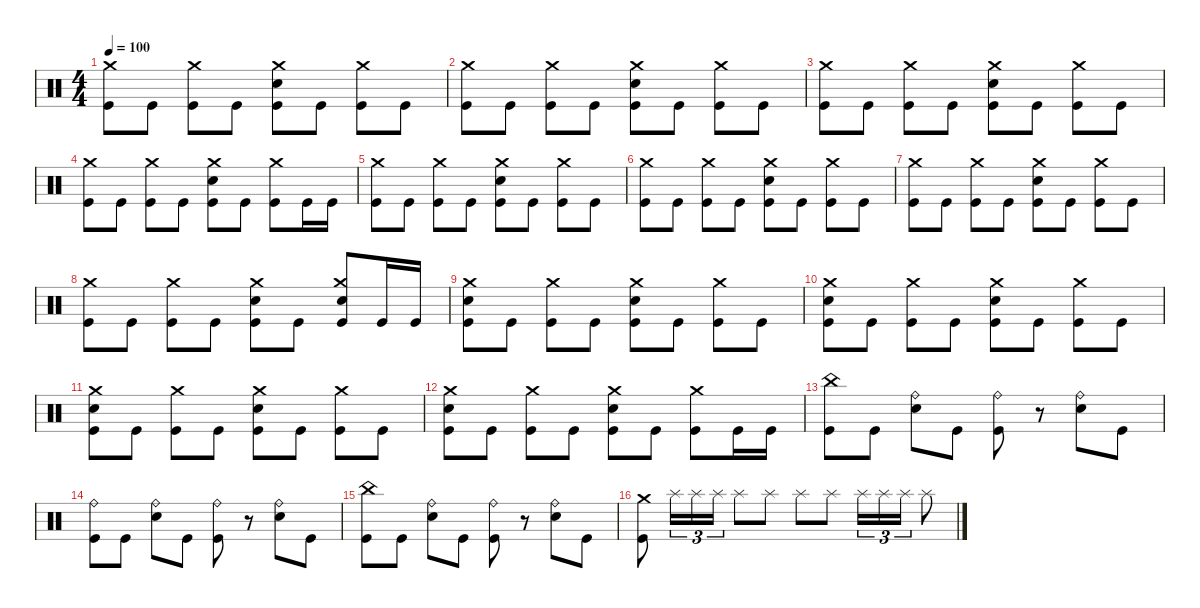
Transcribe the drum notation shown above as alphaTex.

\defaultSystemsLayout 4
\hideDynamics
\bracketExtendMode nobrackets
\singleTrackTrackNamePolicy hidden
\multiTrackTrackNamePolicy hidden
\firstSystemTrackNameMode fullname
\otherSystemsTrackNameOrientation horizontal
\track ("Drumkit" "drm.") {instrument percussion}
\staff {score}
\articulation defaults
\ts (4 4)
\beaming (8 2 2 2 2)
\tempo 100
\clef neutral
\ks c
("Kick (hit)" "Crash medium (hit)").8{dy mf beam Down} "Kick (hit)".8{beam Down} ("Kick (hit)" "Crash medium (hit)").8{beam Down} "Kick (hit)".8{beam Down} ("Kick (hit)" "Snare (hit) 2" "Crash medium (hit)").8{beam Down} "Kick (hit)".8{beam Down} ("Kick (hit)" "Crash medium (hit)").8{beam Down} "Kick (hit)".8{beam Down} |
("Kick (hit)" "Crash medium (hit)").8{beam Down} "Kick (hit)".8{beam Down} ("Kick (hit)" "Crash medium (hit)").8{beam Down} "Kick (hit)".8{beam Down} ("Kick (hit)" "Snare (hit) 2" "Crash medium (hit)").8{beam Down} "Kick (hit)".8{beam Down} ("Kick (hit)" "Crash medium (hit)").8{beam Down} "Kick (hit)".8{beam Down} |
("Kick (hit)" "Crash medium (hit)").8{beam Down} "Kick (hit)".8{beam Down} ("Kick (hit)" "Crash medium (hit)").8{beam Down} "Kick (hit)".8{beam Down} ("Kick (hit)" "Snare (hit) 2" "Crash medium (hit)").8{beam Down} "Kick (hit)".8{beam Down} ("Kick (hit)" "Crash medium (hit)").8{beam Down} "Kick (hit)".8{beam Down} |
("Kick (hit)" "Crash medium (hit)").8{beam Down} "Kick (hit)".8{beam Down} ("Kick (hit)" "Crash medium (hit)").8{beam Down} "Kick (hit)".8{beam Down} ("Kick (hit)" "Snare (hit) 2" "Crash medium (hit)").8{beam Down} "Kick (hit)".8{beam Down} ("Kick (hit)" "Crash medium (hit)").8{beam Down} "Kick (hit)".16{beam Down} "Kick (hit)".16{beam Down} |
("Kick (hit)" "Crash medium (hit)").8{beam Down} "Kick (hit)".8{beam Down} ("Kick (hit)" "Crash medium (hit)").8{beam Down} "Kick (hit)".8{beam Down} ("Kick (hit)" "Snare (hit) 2" "Crash medium (hit)").8{beam Down} "Kick (hit)".8{beam Down} ("Kick (hit)" "Crash medium (hit)").8{beam Down} "Kick (hit)".8{beam Down} |
("Kick (hit)" "Crash medium (hit)").8{beam Down} "Kick (hit)".8{beam Down} ("Kick (hit)" "Crash medium (hit)").8{beam Down} "Kick (hit)".8{beam Down} ("Kick (hit)" "Snare (hit) 2" "Crash medium (hit)").8{beam Down} "Kick (hit)".8{beam Down} ("Kick (hit)" "Crash medium (hit)").8{beam Down} "Kick (hit)".8{beam Down} |
("Kick (hit)" "Crash medium (hit)").8{beam Down} "Kick (hit)".8{beam Down} ("Kick (hit)" "Crash medium (hit)").8{beam Down} "Kick (hit)".8{beam Down} ("Kick (hit)" "Snare (hit) 2" "Crash medium (hit)").8{beam Down} "Kick (hit)".8{beam Down} ("Kick (hit)" "Crash medium (hit)").8{beam Down} "Kick (hit)".8{beam Down} |
("Kick (hit)" "Crash medium (hit)").8{beam Down} "Kick (hit)".8{beam Down} ("Kick (hit)" "Crash medium (hit)").8{beam Down} "Kick (hit)".8{beam Down} ("Kick (hit)" "Snare (hit) 2" "Crash medium (hit)").8{beam Down} "Kick (hit)".8{beam Down} ("Kick (hit)" "Crash medium (hit)" "Snare (hit) 2").8{beam Up} "Kick (hit)".16{beam Up} "Kick (hit)".16{beam Up} |
("Kick (hit)" "Crash medium (hit)" "Snare (hit) 2").8{beam Down} "Kick (hit)".8{beam Down} ("Kick (hit)" "Crash medium (hit)").8{beam Down} "Kick (hit)".8{beam Down} ("Kick (hit)" "Snare (hit) 2" "Crash medium (hit)").8{beam Down} "Kick (hit)".8{beam Down} ("Kick (hit)" "Crash medium (hit)").8{beam Down} "Kick (hit)".8{beam Down} |
("Kick (hit)" "Crash medium (hit)" "Snare (hit) 2").8{beam Down} "Kick (hit)".8{beam Down} ("Kick (hit)" "Crash medium (hit)").8{beam Down} "Kick (hit)".8{beam Down} ("Kick (hit)" "Snare (hit) 2" "Crash medium (hit)").8{beam Down} "Kick (hit)".8{beam Down} ("Kick (hit)" "Crash medium (hit)").8{beam Down} "Kick (hit)".8{beam Down} |
("Kick (hit)" "Crash medium (hit)" "Snare (hit) 2").8{beam Down} "Kick (hit)".8{beam Down} ("Kick (hit)" "Crash medium (hit)").8{beam Down} "Kick (hit)".8{beam Down} ("Kick (hit)" "Snare (hit) 2" "Crash medium (hit)").8{beam Down} "Kick (hit)".8{beam Down} ("Kick (hit)" "Crash medium (hit)").8{beam Down} "Kick (hit)".8{beam Down} |
("Kick (hit)" "Crash medium (hit)" "Snare (hit) 2").8{beam Down} "Kick (hit)".8{beam Down} ("Kick (hit)" "Crash medium (hit)").8{beam Down} "Kick (hit)".8{beam Down} ("Kick (hit)" "Snare (hit) 2" "Crash medium (hit)").8{beam Down} "Kick (hit)".8{beam Down} ("Kick (hit)" "Crash medium (hit)").8{beam Down} "Kick (hit)".16{beam Down} "Kick (hit)".16{beam Down} |
("Kick (hit)" "China (hit)").8{beam Down} "Kick (hit)".8{beam Down} ("Snare (hit) 2" "Ride (bell)").8{beam Down} "Kick (hit)".8{beam Down} ("Kick (hit)" "Ride (bell)").8{beam Down} r.8{beam Down} ("Snare (hit) 2" "Ride (bell)").8{beam Down} "Kick (hit)".8{beam Down} |
("Kick (hit)" "Ride (bell)").8{beam Down} "Kick (hit)".8{beam Down} ("Snare (hit) 2" "Ride (bell)").8{beam Down} "Kick (hit)".8{beam Down} ("Kick (hit)" "Ride (bell)").8{beam Down} r.8{beam Down} ("Snare (hit) 2" "Ride (bell)").8{beam Down} "Kick (hit)".8{beam Down} |
("Kick (hit)" "China (hit)").8{beam Down} "Kick (hit)".8{beam Down} ("Snare (hit) 2" "Ride (bell)").8{beam Down} "Kick (hit)".8{beam Down} ("Kick (hit)" "Ride (bell)").8{beam Down} r.8{beam Down} ("Snare (hit) 2" "Ride (bell)").8{beam Down} "Kick (hit)".8{beam Down} |
("Crash medium (hit)" "Kick (hit)").8{beam Down} "Splash (hit)".16{tu (3 2) beam Down} "Splash (hit)".16{tu (3 2) beam Down} "Splash (hit)".16{tu (3 2) beam Down} "Splash (hit)".8{beam Down} "Splash (hit)".8{beam Down} "Splash (hit)".8{beam Down} "Splash (hit)".8{beam Down} "Splash (hit)".16{tu (3 2) beam Down} "Splash (hit)".16{tu (3 2) beam Down} "Splash (hit)".16{tu (3 2) beam Down} "Splash (hit)".8{beam Down}
